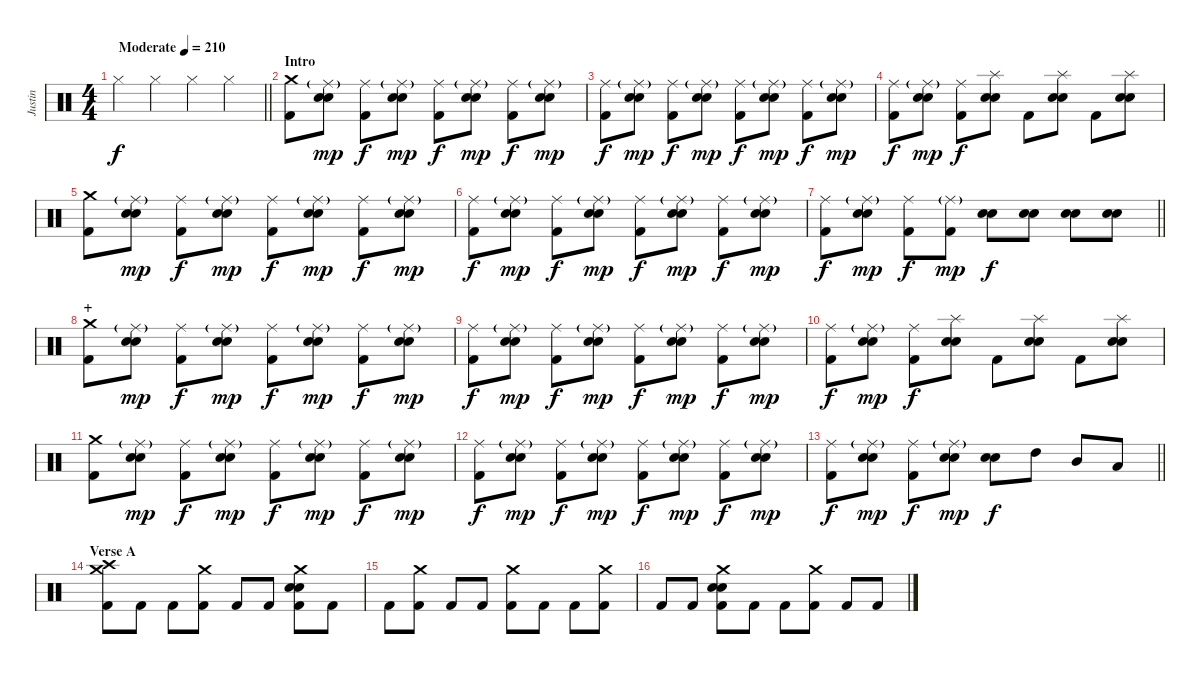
\track ("Justin" "Justin") {instrument percussion}
\staff {score}
\articulation defaults
\ts (4 4)
\tempo (210 "Moderate")
\clef neutral
\barLineRight lightlight
\ks c "Hi-Hat (closed)".4{dy f} "Hi-Hat (closed)".4 "Hi-Hat (closed)".4 "Hi-Hat (closed)".4
|
\section ("" "Intro")
("Crash medium (hit)" "Kick (hit) 2").8 ("Ride (middle)"{g} "Electric Snare (hit)" "Snare (hit) 2").8{dy mp} ("Ride (middle)" "Kick (hit) 2").8{dy f} ("Ride (middle)"{g} "Electric Snare (hit)" "Snare (hit) 2").8{dy mp} ("Ride (middle)" "Kick (hit) 2").8{dy f} ("Ride (middle)"{g} "Electric Snare (hit)" "Snare (hit) 2").8{dy mp} ("Ride (middle)" "Kick (hit) 2").8{dy f} ("Ride (middle)"{g} "Electric Snare (hit)" "Snare (hit) 2").8{dy mp} |
("Ride (middle)" "Kick (hit) 2").8{dy f} ("Ride (middle)"{g} "Electric Snare (hit)" "Snare (hit) 2").8{dy mp} ("Ride (middle)" "Kick (hit) 2").8{dy f} ("Ride (middle)"{g} "Electric Snare (hit)" "Snare (hit) 2").8{dy mp} ("Ride (middle)" "Kick (hit) 2").8{dy f} ("Ride (middle)"{g} "Electric Snare (hit)" "Snare (hit) 2").8{dy mp} ("Ride (middle)" "Kick (hit) 2").8{dy f} ("Ride (middle)"{g} "Electric Snare (hit)" "Snare (hit) 2").8{dy mp} |
("Ride (middle)" "Kick (hit) 2").8{dy f} ("Ride (middle)"{g} "Electric Snare (hit)" "Snare (hit) 2").8{dy mp} ("Ride (middle)" "Kick (hit) 2").8{dy f} ("Splash (hit)" "Electric Snare (hit)" "Snare (hit) 2").8 "Kick (hit) 2".8 ("Splash (hit)" "Electric Snare (hit)" "Snare (hit) 2").8 "Kick (hit) 2".8 ("Splash (hit)" "Electric Snare (hit)" "Snare (hit) 2").8 |
("Crash medium (hit)" "Kick (hit) 2").8 ("Ride (middle)"{g} "Electric Snare (hit)" "Snare (hit) 2").8{dy mp} ("Ride (middle)" "Kick (hit) 2").8{dy f} ("Ride (middle)"{g} "Electric Snare (hit)" "Snare (hit) 2").8{dy mp} ("Ride (middle)" "Kick (hit) 2").8{dy f} ("Ride (middle)"{g} "Electric Snare (hit)" "Snare (hit) 2").8{dy mp} ("Ride (middle)" "Kick (hit) 2").8{dy f} ("Ride (middle)"{g} "Electric Snare (hit)" "Snare (hit) 2").8{dy mp} |
("Ride (middle)" "Kick (hit) 2").8{dy f} ("Ride (middle)"{g} "Electric Snare (hit)" "Snare (hit) 2").8{dy mp} ("Ride (middle)" "Kick (hit) 2").8{dy f} ("Ride (middle)"{g} "Electric Snare (hit)" "Snare (hit) 2").8{dy mp} ("Ride (middle)" "Kick (hit) 2").8{dy f} ("Ride (middle)"{g} "Electric Snare (hit)" "Snare (hit) 2").8{dy mp} ("Ride (middle)" "Kick (hit) 2").8{dy f} ("Ride (middle)"{g} "Electric Snare (hit)" "Snare (hit) 2").8{dy mp} |
\barLineRight lightlight
("Ride (middle)" "Kick (hit) 2").8{dy f} ("Ride (middle)"{g} "Electric Snare (hit)" "Snare (hit) 2").8{dy mp} ("Ride (middle)" "Kick (hit) 2").8{dy f} ("Ride (middle)"{g} "Kick (hit) 2").8{dy mp} ("Electric Snare (hit)" "Snare (hit) 2").8{dy f} ("Electric Snare (hit)" "Snare (hit) 2").8 ("Electric Snare (hit)" "Snare (hit) 2").8 ("Electric Snare (hit)" "Snare (hit) 2").8 |
\section ("" "+")
("Crash medium (hit)" "Kick (hit) 2").8 ("Ride (middle)"{g} "Electric Snare (hit)" "Snare (hit) 2").8{dy mp} ("Ride (middle)" "Kick (hit) 2").8{dy f} ("Ride (middle)"{g} "Electric Snare (hit)" "Snare (hit) 2").8{dy mp} ("Ride (middle)" "Kick (hit) 2").8{dy f} ("Ride (middle)"{g} "Electric Snare (hit)" "Snare (hit) 2").8{dy mp} ("Ride (middle)" "Kick (hit) 2").8{dy f} ("Ride (middle)"{g} "Electric Snare (hit)" "Snare (hit) 2").8{dy mp} |
("Ride (middle)" "Kick (hit) 2").8{dy f} ("Ride (middle)"{g} "Electric Snare (hit)" "Snare (hit) 2").8{dy mp} ("Ride (middle)" "Kick (hit) 2").8{dy f} ("Ride (middle)"{g} "Electric Snare (hit)" "Snare (hit) 2").8{dy mp} ("Ride (middle)" "Kick (hit) 2").8{dy f} ("Ride (middle)"{g} "Electric Snare (hit)" "Snare (hit) 2").8{dy mp} ("Ride (middle)" "Kick (hit) 2").8{dy f} ("Ride (middle)"{g} "Electric Snare (hit)" "Snare (hit) 2").8{dy mp} |
("Ride (middle)" "Kick (hit) 2").8{dy f} ("Ride (middle)"{g} "Electric Snare (hit)" "Snare (hit) 2").8{dy mp} ("Ride (middle)" "Kick (hit) 2").8{dy f} ("Splash (hit)" "Electric Snare (hit)" "Snare (hit) 2").8 "Kick (hit) 2".8 ("Splash (hit)" "Electric Snare (hit)" "Snare (hit) 2").8 "Kick (hit) 2".8 ("Splash (hit)" "Electric Snare (hit)" "Snare (hit) 2").8 |
("Crash medium (hit)" "Kick (hit) 2").8 ("Ride (middle)"{g} "Electric Snare (hit)" "Snare (hit) 2").8{dy mp} ("Ride (middle)" "Kick (hit) 2").8{dy f} ("Ride (middle)"{g} "Electric Snare (hit)" "Snare (hit) 2").8{dy mp} ("Ride (middle)" "Kick (hit) 2").8{dy f} ("Ride (middle)"{g} "Electric Snare (hit)" "Snare (hit) 2").8{dy mp} ("Ride (middle)" "Kick (hit) 2").8{dy f} ("Ride (middle)"{g} "Electric Snare (hit)" "Snare (hit) 2").8{dy mp} |
("Ride (middle)" "Kick (hit) 2").8{dy f} ("Ride (middle)"{g} "Electric Snare (hit)" "Snare (hit) 2").8{dy mp} ("Ride (middle)" "Kick (hit) 2").8{dy f} ("Ride (middle)"{g} "Electric Snare (hit)" "Snare (hit) 2").8{dy mp} ("Ride (middle)" "Kick (hit) 2").8{dy f} ("Ride (middle)"{g} "Electric Snare (hit)" "Snare (hit) 2").8{dy mp} ("Ride (middle)" "Kick (hit) 2").8{dy f} ("Ride (middle)"{g} "Electric Snare (hit)" "Snare (hit) 2").8{dy mp} |
\barLineRight lightlight
("Ride (middle)" "Kick (hit) 2").8{dy f} ("Ride (middle)"{g} "Electric Snare (hit)" "Snare (hit) 2").8{dy mp} ("Ride (middle)" "Kick (hit) 2").8{dy f} ("Ride (middle)"{g} "Electric Snare (hit)" "Snare (hit) 2").8{dy mp} ("Electric Snare (hit)" "Snare (hit) 2").8{dy f} "High Tom (hit)".8 "Mid Tom (hit)".8 "Low Tom (hit)".8 |
\section ("" "Verse A")
("Crash medium (hit)" "Crash high (hit)" "Kick (hit) 2").8 "Kick (hit) 2".8 "Kick (hit) 2".8 ("Crash medium (hit)" "Kick (hit) 2").8 "Kick (hit) 2".8 "Kick (hit) 2".8 ("Crash medium (hit)" "Electric Snare (hit)" "Snare (hit) 2" "Kick (hit) 2").8 "Kick (hit) 2".8 |
"Kick (hit) 2".8 ("Crash medium (hit)" "Kick (hit) 2").8 "Kick (hit) 2".8 "Kick (hit) 2".8 ("Crash medium (hit)" "Kick (hit) 2").8 "Kick (hit) 2".8 "Kick (hit) 2".8 ("Crash medium (hit)" "Kick (hit) 2").8 |
"Kick (hit) 2".8 "Kick (hit) 2".8 ("Crash medium (hit)" "Electric Snare (hit)" "Snare (hit) 2" "Kick (hit) 2").8 "Kick (hit) 2".8 "Kick (hit) 2".8 ("Crash medium (hit)" "Kick (hit) 2").8 "Kick (hit) 2".8 "Kick (hit) 2".8
